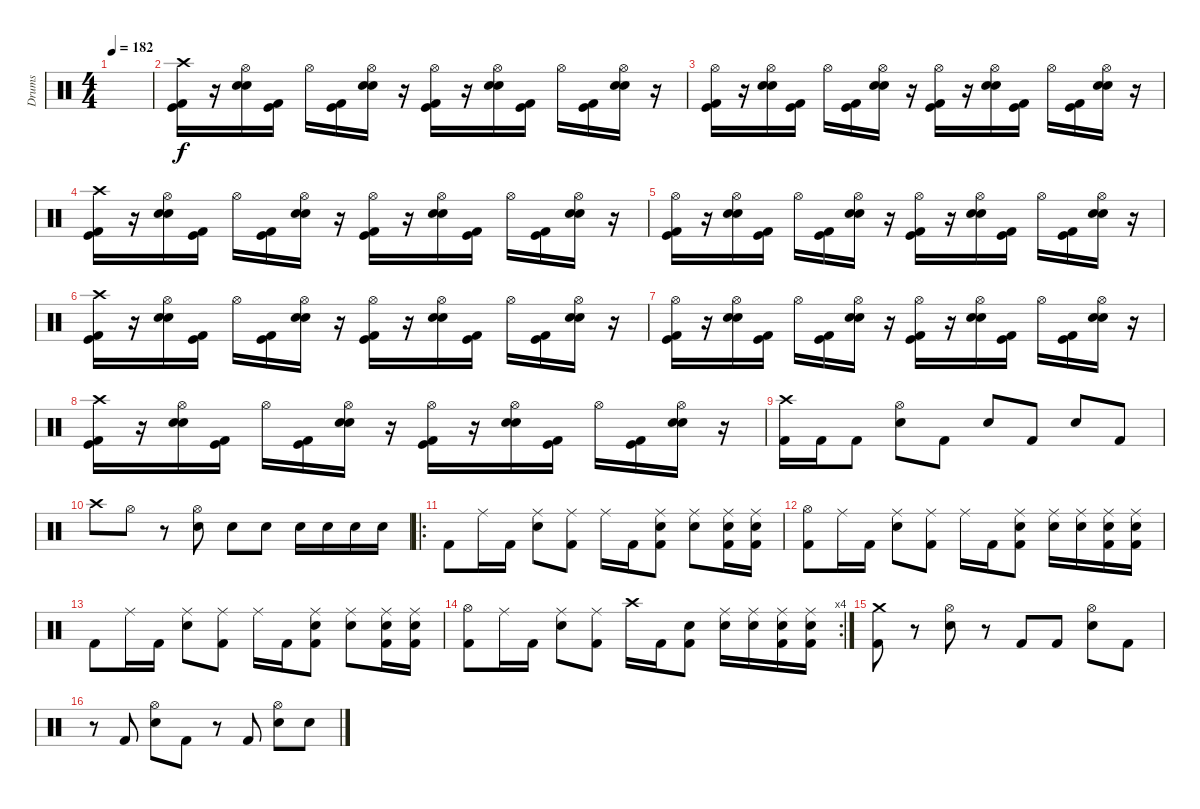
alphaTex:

\track ("Drums" "Drums") {instrument percussion}
\staff {score}
\articulation defaults
\ts (4 4)
\tempo 182
\clef neutral
\ks c
|
("Crash high (hit)" "Kick (hit) 2" "Kick (hit)").16 r.16 ("Hi-Hat (open)" "Snare (hit) 2" "Electric Snare (hit)").16 ("Kick (hit) 2" "Kick (hit)").16 "Hi-Hat (open)".16 ("Kick (hit) 2" "Kick (hit)").16 ("Hi-Hat (open)" "Snare (hit) 2" "Electric Snare (hit)").16 r.16 ("Hi-Hat (open)" "Kick (hit) 2" "Kick (hit)").16 r.16 ("Hi-Hat (open)" "Snare (hit) 2" "Electric Snare (hit)").16 ("Kick (hit) 2" "Kick (hit)").16 "Hi-Hat (open)".16 ("Kick (hit) 2" "Kick (hit)").16 ("Hi-Hat (open)" "Snare (hit) 2" "Electric Snare (hit)").16 r.16 |
("Hi-Hat (open)" "Kick (hit) 2" "Kick (hit)").16 r.16 ("Hi-Hat (open)" "Snare (hit) 2" "Electric Snare (hit)").16 ("Kick (hit) 2" "Kick (hit)").16 "Hi-Hat (open)".16 ("Kick (hit) 2" "Kick (hit)").16 ("Hi-Hat (open)" "Snare (hit) 2" "Electric Snare (hit)").16 r.16 ("Hi-Hat (open)" "Kick (hit) 2" "Kick (hit)").16 r.16 ("Hi-Hat (open)" "Snare (hit) 2" "Electric Snare (hit)").16 ("Kick (hit) 2" "Kick (hit)").16 "Hi-Hat (open)".16 ("Kick (hit) 2" "Kick (hit)").16 ("Hi-Hat (open)" "Snare (hit) 2" "Electric Snare (hit)").16 r.16 |
("Crash high (hit)" "Kick (hit) 2" "Kick (hit)").16 r.16 ("Hi-Hat (open)" "Snare (hit) 2" "Electric Snare (hit)").16 ("Kick (hit) 2" "Kick (hit)").16 "Hi-Hat (open)".16 ("Kick (hit) 2" "Kick (hit)").16 ("Hi-Hat (open)" "Snare (hit) 2" "Electric Snare (hit)").16 r.16 ("Hi-Hat (open)" "Kick (hit) 2" "Kick (hit)").16 r.16 ("Hi-Hat (open)" "Snare (hit) 2" "Electric Snare (hit)").16 ("Kick (hit) 2" "Kick (hit)").16 "Hi-Hat (open)".16 ("Kick (hit) 2" "Kick (hit)").16 ("Hi-Hat (open)" "Snare (hit) 2" "Electric Snare (hit)").16 r.16 |
("Hi-Hat (open)" "Kick (hit) 2" "Kick (hit)").16 r.16 ("Hi-Hat (open)" "Snare (hit) 2" "Electric Snare (hit)").16 ("Kick (hit) 2" "Kick (hit)").16 "Hi-Hat (open)".16 ("Kick (hit) 2" "Kick (hit)").16 ("Hi-Hat (open)" "Snare (hit) 2" "Electric Snare (hit)").16 r.16 ("Hi-Hat (open)" "Kick (hit) 2" "Kick (hit)").16 r.16 ("Hi-Hat (open)" "Snare (hit) 2" "Electric Snare (hit)").16 ("Kick (hit) 2" "Kick (hit)").16 "Hi-Hat (open)".16 ("Kick (hit) 2" "Kick (hit)").16 ("Hi-Hat (open)" "Snare (hit) 2" "Electric Snare (hit)").16 r.16 |
("Crash high (hit)" "Kick (hit) 2" "Kick (hit)").16 r.16 ("Hi-Hat (open)" "Snare (hit) 2" "Electric Snare (hit)").16 ("Kick (hit) 2" "Kick (hit)").16 "Hi-Hat (open)".16 ("Kick (hit) 2" "Kick (hit)").16 ("Hi-Hat (open)" "Snare (hit) 2" "Electric Snare (hit)").16 r.16 ("Hi-Hat (open)" "Kick (hit) 2" "Kick (hit)").16 r.16 ("Hi-Hat (open)" "Snare (hit) 2" "Electric Snare (hit)").16 ("Kick (hit) 2" "Kick (hit)").16 "Hi-Hat (open)".16 ("Kick (hit) 2" "Kick (hit)").16 ("Hi-Hat (open)" "Snare (hit) 2" "Electric Snare (hit)").16 r.16 |
("Hi-Hat (open)" "Kick (hit) 2" "Kick (hit)").16 r.16 ("Hi-Hat (open)" "Snare (hit) 2" "Electric Snare (hit)").16 ("Kick (hit) 2" "Kick (hit)").16 "Hi-Hat (open)".16 ("Kick (hit) 2" "Kick (hit)").16 ("Hi-Hat (open)" "Snare (hit) 2" "Electric Snare (hit)").16 r.16 ("Hi-Hat (open)" "Kick (hit) 2" "Kick (hit)").16 r.16 ("Hi-Hat (open)" "Snare (hit) 2" "Electric Snare (hit)").16 ("Kick (hit) 2" "Kick (hit)").16 "Hi-Hat (open)".16 ("Kick (hit) 2" "Kick (hit)").16 ("Hi-Hat (open)" "Snare (hit) 2" "Electric Snare (hit)").16 r.16 |
("Crash high (hit)" "Kick (hit) 2" "Kick (hit)").16 r.16 ("Hi-Hat (open)" "Snare (hit) 2" "Electric Snare (hit)").16 ("Kick (hit) 2" "Kick (hit)").16 "Hi-Hat (open)".16 ("Kick (hit) 2" "Kick (hit)").16 ("Hi-Hat (open)" "Snare (hit) 2" "Electric Snare (hit)").16 r.16 ("Hi-Hat (open)" "Kick (hit) 2" "Kick (hit)").16 r.16 ("Hi-Hat (open)" "Snare (hit) 2" "Electric Snare (hit)").16 ("Kick (hit) 2" "Kick (hit)").16 "Hi-Hat (open)".16 ("Kick (hit) 2" "Kick (hit)").16 ("Hi-Hat (open)" "Snare (hit) 2" "Electric Snare (hit)").16 r.16 |
("Crash high (hit)" "Kick (hit) 2").16 "Kick (hit) 2".16 "Kick (hit) 2".8 ("Hi-Hat (open)" "Electric Snare (hit)").8 "Kick (hit) 2".8 "Electric Snare (hit)".8 "Kick (hit) 2".8 "Electric Snare (hit)".8 "Kick (hit) 2".8 |
"Crash high (hit)".8 "Hi-Hat (open)".8 r.8 ("Hi-Hat (open)" "Snare (hit) 2").8 "Snare (hit) 2".8 "Snare (hit) 2".8 "Snare (hit) 2".16 "Snare (hit) 2".16 "Snare (hit) 2".16 "Snare (hit) 2".16 |
\ro "Kick (hit) 2".8 "Ride (middle)".16 "Kick (hit) 2".16
("Ride (middle)" "Electric Snare (hit)").8 ("Ride (middle)" "Kick (hit) 2").8 "Ride (middle)".16 "Kick (hit) 2".16 ("Ride (middle)" "Electric Snare (hit)" "Kick (hit) 2").8 ("Ride (middle)" "Electric Snare (hit)").8 ("Ride (middle)" "Electric Snare (hit)" "Kick (hit) 2").16 ("Ride (middle)" "Electric Snare (hit)" "Kick (hit) 2").16 |
("Hi-Hat (open)" "Kick (hit) 2").8 "Ride (middle)".16 "Kick (hit) 2".16 ("Ride (middle)" "Electric Snare (hit)").8 ("Ride (middle)" "Kick (hit) 2").8 "Ride (middle)".16 "Kick (hit) 2".16 ("Ride (middle)" "Electric Snare (hit)" "Kick (hit) 2").8 ("Ride (middle)" "Electric Snare (hit)").16 ("Ride (middle)" "Electric Snare (hit)").16 ("Ride (middle)" "Electric Snare (hit)" "Kick (hit) 2").16 ("Ride (middle)" "Electric Snare (hit)" "Kick (hit) 2").16 |
"Kick (hit) 2".8 "Ride (middle)".16 "Kick (hit) 2".16 ("Ride (middle)" "Electric Snare (hit)").8 ("Ride (middle)" "Kick (hit) 2").8 "Ride (middle)".16 "Kick (hit) 2".16 ("Ride (middle)" "Electric Snare (hit)" "Kick (hit) 2").8 ("Ride (middle)" "Electric Snare (hit)").8 ("Ride (middle)" "Electric Snare (hit)" "Kick (hit) 2").16 ("Ride (middle)" "Electric Snare (hit)" "Kick (hit) 2").16 |
\rc 4
("Hi-Hat (open)" "Kick (hit) 2").8 "Ride (middle)".16 "Kick (hit) 2".16 ("Ride (middle)" "Electric Snare (hit)").8 ("Ride (middle)" "Kick (hit) 2").8 "Crash high (hit)".16 "Kick (hit) 2".16 ("Electric Snare (hit)" "Kick (hit) 2").8 ("Ride (middle)" "Electric Snare (hit)").16 ("Ride (middle)" "Electric Snare (hit)").16 ("Ride (middle)" "Electric Snare (hit)" "Kick (hit) 2").16 ("Ride (middle)" "Electric Snare (hit)" "Kick (hit) 2").16 |
("Crash medium (hit)" "Kick (hit) 2").8 r.8 ("Hi-Hat (open)" "Electric Snare (hit)").8 r.8 "Kick (hit) 2".8 "Kick (hit) 2".8 ("Hi-Hat (open)" "Electric Snare (hit)").8 "Kick (hit) 2".8 |
r.8 "Kick (hit) 2".8 ("Hi-Hat (open)" "Electric Snare (hit)").8 "Kick (hit) 2".8 r.8 "Kick (hit) 2".8 ("Hi-Hat (open)" "Snare (hit) 2").8 "Snare (hit) 2".8
